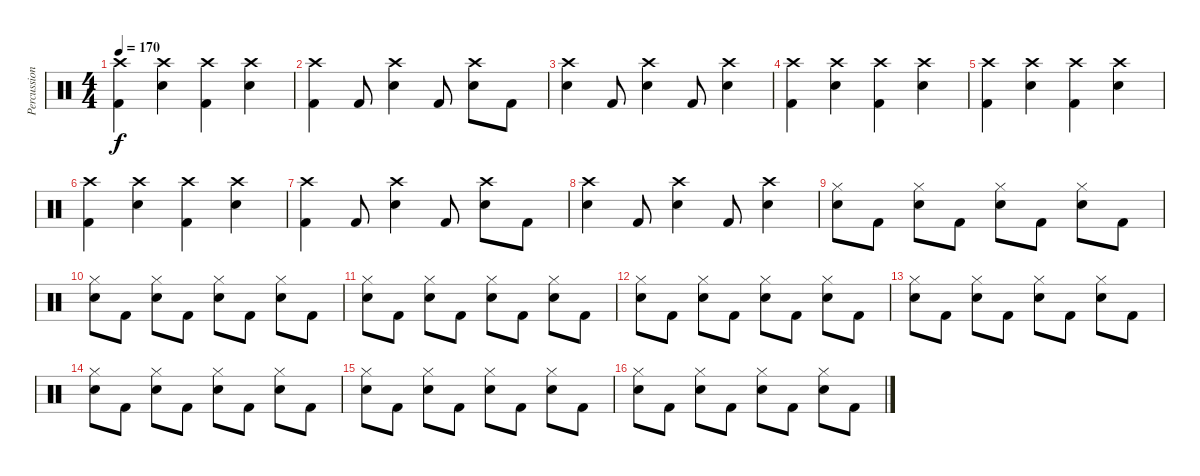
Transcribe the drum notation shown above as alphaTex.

\track ("Percussion" "Percussion") {instrument percussion}
\staff {score}
\articulation defaults
\ts (4 4)
\tempo 170
\clef neutral
\ks c
("Crash high (hit)" "Kick (hit) 2").4{dy f} ("Crash high (hit)" "Electric Snare (hit)").4 ("Crash high (hit)" "Kick (hit) 2").4 ("Crash high (hit)" "Electric Snare (hit)").4 |
("Crash high (hit)" "Kick (hit) 2").4 "Kick (hit) 2".8 ("Crash high (hit)" "Electric Snare (hit)").4 "Kick (hit) 2".8 ("Crash high (hit)" "Electric Snare (hit)").8 "Kick (hit) 2".8 |
("Crash high (hit)" "Electric Snare (hit)").4 "Kick (hit) 2".8 ("Crash high (hit)" "Electric Snare (hit)").4 "Kick (hit) 2".8 ("Crash high (hit)" "Electric Snare (hit)").4 |
("Crash high (hit)" "Kick (hit) 2").4 ("Crash high (hit)" "Electric Snare (hit)").4 ("Crash high (hit)" "Kick (hit) 2").4 ("Crash high (hit)" "Electric Snare (hit)").4 |
("Crash high (hit)" "Kick (hit) 2").4 ("Crash high (hit)" "Electric Snare (hit)").4 ("Crash high (hit)" "Kick (hit) 2").4 ("Crash high (hit)" "Electric Snare (hit)").4 |
("Crash high (hit)" "Kick (hit) 2").4 ("Crash high (hit)" "Electric Snare (hit)").4 ("Crash high (hit)" "Kick (hit) 2").4 ("Crash high (hit)" "Electric Snare (hit)").4 |
("Crash high (hit)" "Kick (hit) 2").4 "Kick (hit) 2".8 ("Crash high (hit)" "Electric Snare (hit)").4 "Kick (hit) 2".8 ("Crash high (hit)" "Electric Snare (hit)").8 "Kick (hit) 2".8 |
("Crash high (hit)" "Electric Snare (hit)").4 "Kick (hit) 2".8 ("Crash high (hit)" "Electric Snare (hit)").4 "Kick (hit) 2".8 ("Crash high (hit)" "Electric Snare (hit)").4 |
("Hi-Hat (closed)" "Electric Snare (hit)").8 "Kick (hit) 2".8 ("Hi-Hat (closed)" "Electric Snare (hit)").8 "Kick (hit) 2".8 ("Hi-Hat (closed)" "Electric Snare (hit)").8 "Kick (hit) 2".8 ("Hi-Hat (closed)" "Electric Snare (hit)").8 "Kick (hit) 2".8 |
("Hi-Hat (closed)" "Electric Snare (hit)").8 "Kick (hit) 2".8 ("Hi-Hat (closed)" "Electric Snare (hit)").8 "Kick (hit) 2".8 ("Hi-Hat (closed)" "Electric Snare (hit)").8 "Kick (hit) 2".8 ("Hi-Hat (closed)" "Electric Snare (hit)").8 "Kick (hit) 2".8 |
("Hi-Hat (closed)" "Electric Snare (hit)").8 "Kick (hit) 2".8 ("Hi-Hat (closed)" "Electric Snare (hit)").8 "Kick (hit) 2".8 ("Hi-Hat (closed)" "Electric Snare (hit)").8 "Kick (hit) 2".8 ("Hi-Hat (closed)" "Electric Snare (hit)").8 "Kick (hit) 2".8 |
("Hi-Hat (closed)" "Electric Snare (hit)").8 "Kick (hit) 2".8 ("Hi-Hat (closed)" "Electric Snare (hit)").8 "Kick (hit) 2".8 ("Hi-Hat (closed)" "Electric Snare (hit)").8 "Kick (hit) 2".8 ("Hi-Hat (closed)" "Electric Snare (hit)").8 "Kick (hit) 2".8 |
("Hi-Hat (closed)" "Electric Snare (hit)").8 "Kick (hit) 2".8 ("Hi-Hat (closed)" "Electric Snare (hit)").8 "Kick (hit) 2".8 ("Hi-Hat (closed)" "Electric Snare (hit)").8 "Kick (hit) 2".8 ("Hi-Hat (closed)" "Electric Snare (hit)").8 "Kick (hit) 2".8 |
("Hi-Hat (closed)" "Electric Snare (hit)").8 "Kick (hit) 2".8 ("Hi-Hat (closed)" "Electric Snare (hit)").8 "Kick (hit) 2".8 ("Hi-Hat (closed)" "Electric Snare (hit)").8 "Kick (hit) 2".8 ("Hi-Hat (closed)" "Electric Snare (hit)").8 "Kick (hit) 2".8 |
("Hi-Hat (closed)" "Electric Snare (hit)").8 "Kick (hit) 2".8 ("Hi-Hat (closed)" "Electric Snare (hit)").8 "Kick (hit) 2".8 ("Hi-Hat (closed)" "Electric Snare (hit)").8 "Kick (hit) 2".8 ("Hi-Hat (closed)" "Electric Snare (hit)").8 "Kick (hit) 2".8 |
("Hi-Hat (closed)" "Electric Snare (hit)").8 "Kick (hit) 2".8 ("Hi-Hat (closed)" "Electric Snare (hit)").8 "Kick (hit) 2".8 ("Hi-Hat (closed)" "Electric Snare (hit)").8 "Kick (hit) 2".8 ("Hi-Hat (closed)" "Electric Snare (hit)").8 "Kick (hit) 2".8
